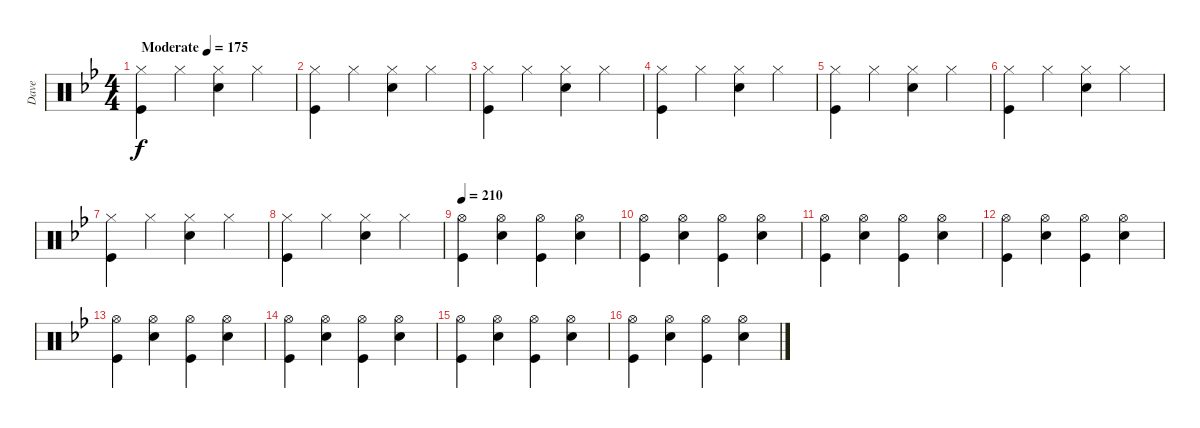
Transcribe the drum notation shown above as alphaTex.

\track ("Dave" "Dave") {instrument percussion}
\staff {score}
\articulation defaults
\ts (4 4)
\tempo (175 "Moderate")
\clef neutral
\ks gminor
("Hi-Hat (closed)" "Kick (hit)").4{dy f} "Hi-Hat (closed)".4 ("Hi-Hat (closed)" "Snare (hit) 2").4 "Hi-Hat (closed)".4 |
("Hi-Hat (closed)" "Kick (hit)").4 "Hi-Hat (closed)".4 ("Hi-Hat (closed)" "Snare (hit) 2").4 "Hi-Hat (closed)".4 |
("Hi-Hat (closed)" "Kick (hit)").4 "Hi-Hat (closed)".4 ("Hi-Hat (closed)" "Snare (hit) 2").4 "Hi-Hat (closed)".4 |
("Hi-Hat (closed)" "Kick (hit)").4 "Hi-Hat (closed)".4 ("Hi-Hat (closed)" "Snare (hit) 2").4 "Hi-Hat (closed)".4 |
("Hi-Hat (closed)" "Kick (hit)").4 "Hi-Hat (closed)".4 ("Hi-Hat (closed)" "Snare (hit) 2").4 "Hi-Hat (closed)".4 |
("Hi-Hat (closed)" "Kick (hit)").4 "Hi-Hat (closed)".4 ("Hi-Hat (closed)" "Snare (hit) 2").4 "Hi-Hat (closed)".4 |
("Hi-Hat (closed)" "Kick (hit)").4 "Hi-Hat (closed)".4 ("Hi-Hat (closed)" "Snare (hit) 2").4 "Hi-Hat (closed)".4 |
("Hi-Hat (closed)" "Kick (hit)").4 "Hi-Hat (closed)".4 ("Hi-Hat (closed)" "Snare (hit) 2").4 "Hi-Hat (closed)".4 |
\tempo 210
("Hi-Hat (open)" "Kick (hit)").4 ("Hi-Hat (open)" "Snare (hit) 2").4 ("Hi-Hat (open)" "Kick (hit)").4 ("Hi-Hat (open)" "Snare (hit) 2").4 |
("Hi-Hat (open)" "Kick (hit)").4 ("Hi-Hat (open)" "Snare (hit) 2").4 ("Hi-Hat (open)" "Kick (hit)").4 ("Hi-Hat (open)" "Snare (hit) 2").4 |
("Hi-Hat (open)" "Kick (hit)").4 ("Hi-Hat (open)" "Snare (hit) 2").4 ("Hi-Hat (open)" "Kick (hit)").4 ("Hi-Hat (open)" "Snare (hit) 2").4 |
("Hi-Hat (open)" "Kick (hit)").4 ("Hi-Hat (open)" "Snare (hit) 2").4 ("Hi-Hat (open)" "Kick (hit)").4 ("Hi-Hat (open)" "Snare (hit) 2").4 |
("Hi-Hat (open)" "Kick (hit)").4 ("Hi-Hat (open)" "Snare (hit) 2").4 ("Hi-Hat (open)" "Kick (hit)").4 ("Hi-Hat (open)" "Snare (hit) 2").4 |
("Hi-Hat (open)" "Kick (hit)").4 ("Hi-Hat (open)" "Snare (hit) 2").4 ("Hi-Hat (open)" "Kick (hit)").4 ("Hi-Hat (open)" "Snare (hit) 2").4 |
("Hi-Hat (open)" "Kick (hit)").4 ("Hi-Hat (open)" "Snare (hit) 2").4 ("Hi-Hat (open)" "Kick (hit)").4 ("Hi-Hat (open)" "Snare (hit) 2").4 |
("Hi-Hat (open)" "Kick (hit)").4 ("Hi-Hat (open)" "Snare (hit) 2").4 ("Hi-Hat (open)" "Kick (hit)").4 ("Hi-Hat (open)" "Snare (hit) 2").4
